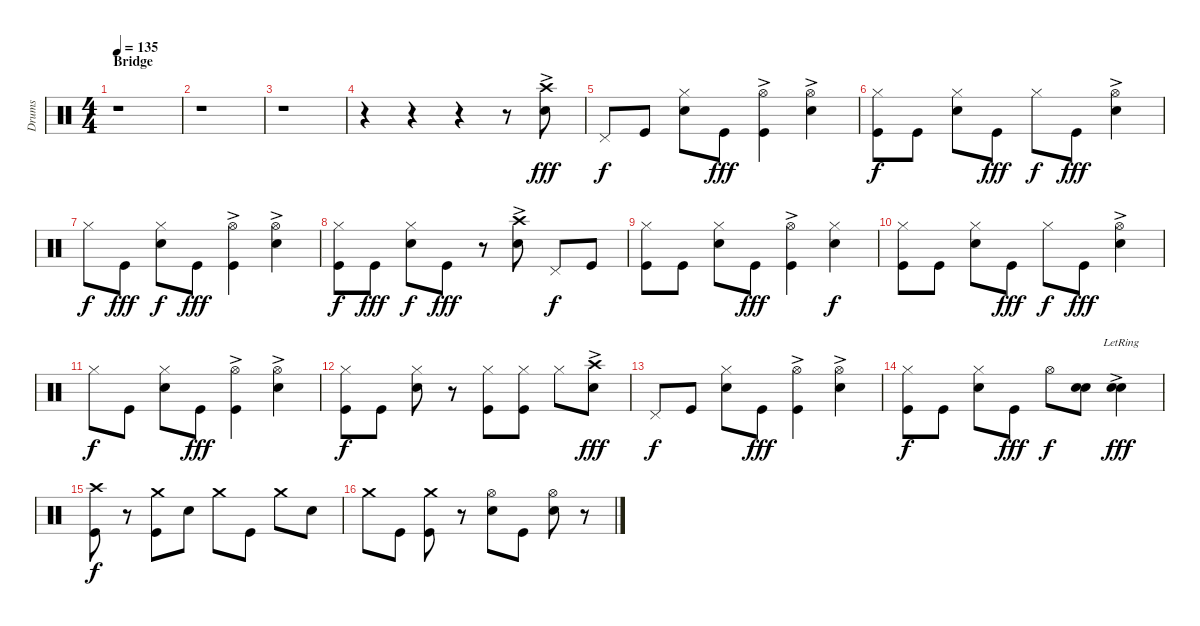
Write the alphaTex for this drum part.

\track ("Drums" "Drums") {instrument percussion}
\staff {score}
\articulation defaults
\ts (4 4)
\section ("" "Bridge")
\tempo 135
\clef neutral
\ks c
r.1{dy f} |
r.1 |
r.1 |
r.4 r.4 r.4 r.8 ("Crash high (hit)"{ac} "Snare (hit) 2"{ac}).8{dy fff} |
"Pedal Hi-Hat (hit)".8{dy f} "Kick (hit)".8 ("Hi-Hat (closed)" "Snare (hit) 2").8 "Kick (hit)".8{dy fff} ("Hi-Hat (open)"{ac} "Kick (hit)"{ac}).4 ("Hi-Hat (open)"{ac} "Snare (hit) 2"{ac}).4 |
("Hi-Hat (closed)" "Kick (hit)").8{dy f} "Kick (hit)".8 ("Hi-Hat (closed)" "Snare (hit) 2").8 "Kick (hit)".8{dy fff} "Hi-Hat (closed)".8{dy f} "Kick (hit)".8{dy fff} ("Hi-Hat (open)"{ac} "Snare (hit) 2"{ac}).4 |
"Hi-Hat (closed)".8{dy f} "Kick (hit)".8{dy fff} ("Hi-Hat (closed)" "Snare (hit) 2").8{dy f} "Kick (hit)".8{dy fff} ("Hi-Hat (open)"{ac} "Kick (hit)"{ac}).4 ("Hi-Hat (open)"{ac} "Snare (hit) 2"{ac}).4 |
("Hi-Hat (closed)" "Kick (hit)").8{dy f} "Kick (hit)".8{dy fff} ("Hi-Hat (closed)" "Snare (hit) 2").8{dy f} "Kick (hit)".8{dy fff} r.8 ("Crash high (hit)"{ac} "Snare (hit) 2"{ac}).8 "Pedal Hi-Hat (hit)".8{dy f} "Kick (hit)".8 |
("Hi-Hat (closed)" "Kick (hit)").8 "Kick (hit)".8 ("Hi-Hat (closed)" "Snare (hit) 2").8 "Kick (hit)".8{dy fff} ("Hi-Hat (open)"{ac} "Kick (hit)"{ac}).4 ("Hi-Hat (closed)" "Snare (hit) 2").4{dy f} |
("Hi-Hat (closed)" "Kick (hit)").8 "Kick (hit)".8 ("Hi-Hat (closed)" "Snare (hit) 2").8 "Kick (hit)".8{dy fff} "Hi-Hat (closed)".8{dy f} "Kick (hit)".8{dy fff} ("Hi-Hat (open)"{ac} "Snare (hit) 2"{ac}).4 |
"Hi-Hat (closed)".8{dy f} "Kick (hit)".8 ("Hi-Hat (closed)" "Snare (hit) 2").8 "Kick (hit)".8{dy fff} ("Hi-Hat (open)"{ac} "Kick (hit)"{ac}).4 ("Hi-Hat (open)"{ac} "Snare (hit) 2"{ac}).4 |
("Hi-Hat (closed)" "Kick (hit)").8{dy f} "Kick (hit)".8 ("Hi-Hat (closed)" "Snare (hit) 2").8 r.8 ("Hi-Hat (closed)" "Kick (hit)").8 ("Hi-Hat (closed)" "Kick (hit)").8 "Hi-Hat (closed)".8 ("Crash high (hit)"{ac} "Snare (hit) 2"{ac}).8{dy fff} |
"Pedal Hi-Hat (hit)".8{dy f} "Kick (hit)".8 ("Hi-Hat (closed)" "Snare (hit) 2").8 "Kick (hit)".8{dy fff} ("Hi-Hat (open)"{ac} "Kick (hit)"{ac}).4 ("Hi-Hat (open)"{ac} "Snare (hit) 2"{ac}).4 |
("Hi-Hat (closed)" "Kick (hit)").8{dy f} "Kick (hit)".8 ("Hi-Hat (closed)" "Snare (hit) 2").8 "Kick (hit)".8{dy fff} "Hi-Hat (open)".8{dy f} ("Snare (hit) 2" "Snare (hit) 2").8{bu 120} ("Snare (hit) 2"{lr} "Snare (hit) 2"{ac}).4{bu 120 dy fff} |
("Crash high (hit)" "Kick (hit)").8{dy f} r.8 ("Crash medium (hit)" "Kick (hit)").8 "Snare (hit) 2".8 "Crash medium (hit)".8 "Kick (hit)".8 "Crash medium (hit)".8 "Snare (hit) 2".8 |
"Crash medium (hit)".8 "Kick (hit)".8 ("Crash medium (hit)" "Kick (hit)").8 r.8 ("Hi-Hat (open)" "Snare (hit) 2").8 "Kick (hit)".8 ("Hi-Hat (open)" "Snare (hit) 2").8 r.8
